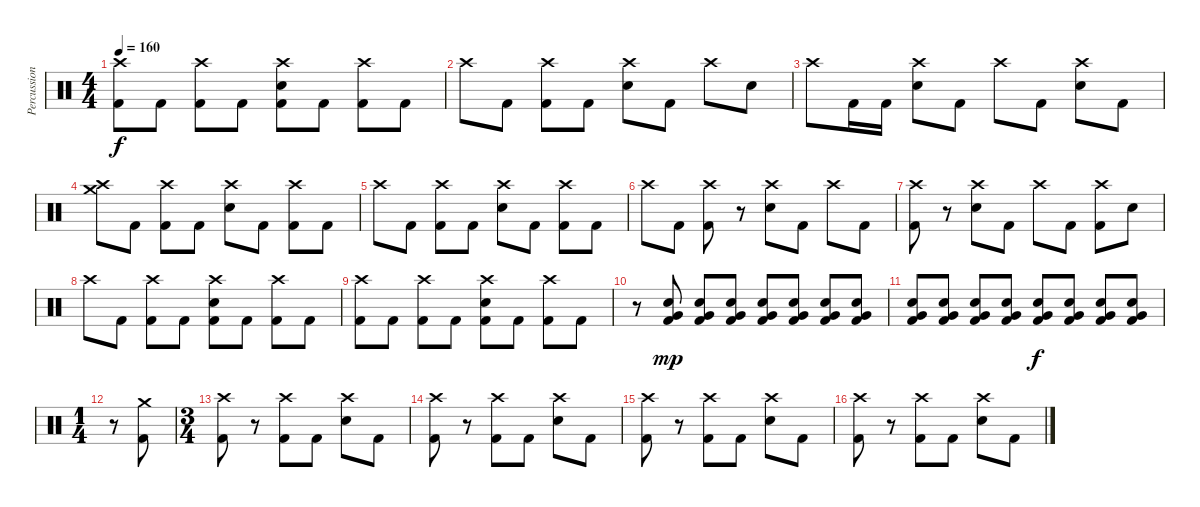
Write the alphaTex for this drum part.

\track ("Percussion" "Percussion") {instrument percussion}
\staff {score}
\articulation defaults
\ts (4 4)
\tempo 160
\clef neutral
\ks c
("Crash high (hit)" "Kick (hit) 2").8{dy f} "Kick (hit) 2".8 ("Crash high (hit)" "Kick (hit) 2").8 "Kick (hit) 2".8 ("Crash high (hit)" "Electric Snare (hit)" "Kick (hit) 2").8 "Kick (hit) 2".8 ("Crash high (hit)" "Kick (hit) 2").8 "Kick (hit) 2".8 |
"Crash high (hit)".8 "Kick (hit) 2".8 ("Crash high (hit)" "Kick (hit) 2").8 "Kick (hit) 2".8 ("Crash high (hit)" "Electric Snare (hit)").8 "Kick (hit) 2".8 "Crash high (hit)".8 "Electric Snare (hit)".8 |
"Crash high (hit)".8 "Kick (hit) 2".16 "Kick (hit) 2".16 ("Crash high (hit)" "Electric Snare (hit)").8 "Kick (hit) 2".8 "Crash high (hit)".8 "Kick (hit) 2".8 ("Crash high (hit)" "Electric Snare (hit)").8 "Kick (hit) 2".8 |
("Crash medium (hit)" "Crash high (hit)").8 "Kick (hit) 2".8 ("Crash high (hit)" "Kick (hit) 2").8 "Kick (hit) 2".8 ("Crash high (hit)" "Electric Snare (hit)").8 "Kick (hit) 2".8 ("Crash high (hit)" "Kick (hit) 2").8 "Kick (hit) 2".8 |
"Crash high (hit)".8 "Kick (hit) 2".8 ("Crash high (hit)" "Kick (hit) 2").8 "Kick (hit) 2".8 ("Crash high (hit)" "Electric Snare (hit)").8 "Kick (hit) 2".8 ("Crash high (hit)" "Kick (hit) 2").8 "Kick (hit) 2".8 |
"Crash high (hit)".8 "Kick (hit) 2".8 ("Crash high (hit)" "Kick (hit) 2").8 r.8 ("Crash high (hit)" "Electric Snare (hit)").8 "Kick (hit) 2".8 "Crash high (hit)".8 "Kick (hit) 2".8 |
("Crash high (hit)" "Kick (hit) 2").8 r.8 ("Crash high (hit)" "Electric Snare (hit)").8 "Kick (hit) 2".8 "Crash high (hit)".8 "Kick (hit) 2".8 ("Crash high (hit)" "Kick (hit) 2").8 "Electric Snare (hit)".8 |
"Crash high (hit)".8 "Kick (hit) 2".8 ("Crash high (hit)" "Kick (hit) 2").8 "Kick (hit) 2".8 ("Crash high (hit)" "Electric Snare (hit)" "Kick (hit) 2").8 "Kick (hit) 2".8 ("Crash high (hit)" "Kick (hit) 2").8 "Kick (hit) 2".8 |
("Crash high (hit)" "Kick (hit) 2").8 "Kick (hit) 2".8 ("Crash high (hit)" "Kick (hit) 2").8 "Kick (hit) 2".8 ("Crash high (hit)" "Electric Snare (hit)" "Kick (hit) 2").8 "Kick (hit) 2".8 ("Crash high (hit)" "Kick (hit) 2").8 "Kick (hit) 2".8 |
r.8 ("Very Low Tom (hit)" "Electric Snare (hit)" "Kick (hit) 2").8{dy mp} ("Very Low Tom (hit)" "Electric Snare (hit)" "Kick (hit) 2").8 ("Very Low Tom (hit)" "Electric Snare (hit)" "Kick (hit) 2").8 ("Very Low Tom (hit)" "Electric Snare (hit)" "Kick (hit) 2").8 ("Very Low Tom (hit)" "Electric Snare (hit)" "Kick (hit) 2").8 ("Very Low Tom (hit)" "Electric Snare (hit)" "Kick (hit) 2").8 ("Very Low Tom (hit)" "Electric Snare (hit)" "Kick (hit) 2").8 |
("Very Low Tom (hit)" "Electric Snare (hit)" "Kick (hit) 2").8 ("Very Low Tom (hit)" "Electric Snare (hit)" "Kick (hit) 2").8 ("Very Low Tom (hit)" "Electric Snare (hit)" "Kick (hit) 2").8 ("Very Low Tom (hit)" "Electric Snare (hit)" "Kick (hit) 2").8 ("Very Low Tom (hit)" "Electric Snare (hit)" "Kick (hit) 2").8{dy f} ("Very Low Tom (hit)" "Electric Snare (hit)" "Kick (hit) 2").8 ("Very Low Tom (hit)" "Electric Snare (hit)" "Kick (hit) 2").8 ("Very Low Tom (hit)" "Electric Snare (hit)" "Kick (hit) 2").8 |
\ts (1 4)
r.8 ("Crash medium (hit)" "Kick (hit) 2").8 |
\ts (3 4)
("Crash high (hit)" "Kick (hit) 2").8 r.8 ("Crash high (hit)" "Kick (hit) 2").8 "Kick (hit) 2".8 ("Crash high (hit)" "Electric Snare (hit)").8 "Kick (hit) 2".8 |
("Crash high (hit)" "Kick (hit) 2").8 r.8 ("Crash high (hit)" "Kick (hit) 2").8 "Kick (hit) 2".8 ("Crash high (hit)" "Electric Snare (hit)").8 "Kick (hit) 2".8 |
("Crash high (hit)" "Kick (hit) 2").8 r.8 ("Crash high (hit)" "Kick (hit) 2").8 "Kick (hit) 2".8 ("Crash high (hit)" "Electric Snare (hit)").8 "Kick (hit) 2".8 |
("Crash high (hit)" "Kick (hit) 2").8 r.8 ("Crash high (hit)" "Kick (hit) 2").8 "Kick (hit) 2".8 ("Crash high (hit)" "Electric Snare (hit)").8 "Kick (hit) 2".8
